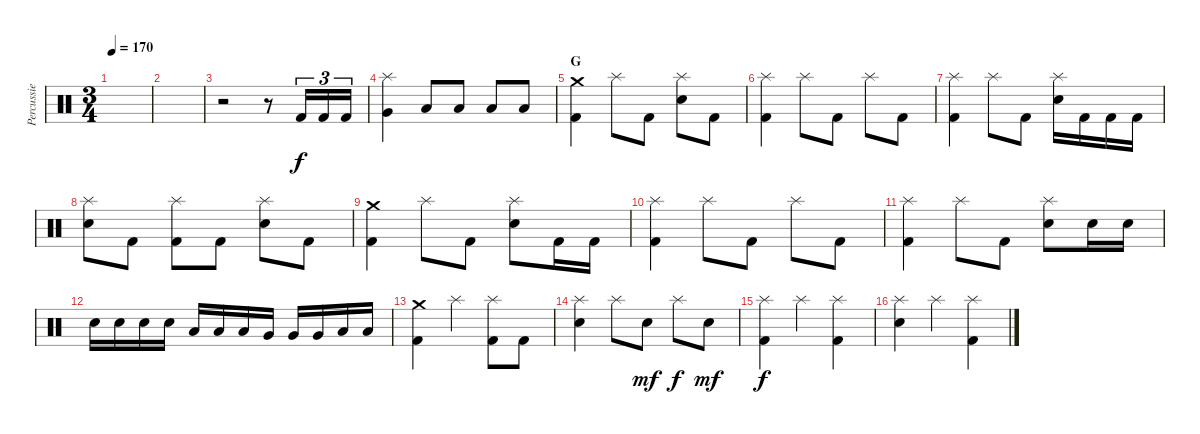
\track ("Percussie" "Percussie") {instrument percussion}
\staff {score}
\articulation defaults
\ts (3 4)
\tempo 170
\clef neutral
\ks c
|
|
r.2 r.8 "Kick (hit) 2".16{tu (3 2)} "Kick (hit) 2".16{tu (3 2)} "Kick (hit) 2".16{tu (3 2)} |
("Splash (hit)" "Very Low Tom (hit)").4 "Low Floor Tom (hit)".8 "Low Floor Tom (hit)".8 "Low Floor Tom (hit)".8 "Low Floor Tom (hit)".8 |
\section ("" "G")
("Crash medium (hit)" "Kick (hit) 2").4 "Splash (hit)".8 "Kick (hit) 2".8 ("Splash (hit)" "Electric Snare (hit)").8 "Kick (hit) 2".8 |
("Splash (hit)" "Kick (hit) 2").4 "Splash (hit)".8 "Kick (hit) 2".8 "Splash (hit)".8 "Kick (hit) 2".8 |
("Splash (hit)" "Kick (hit) 2").4 "Splash (hit)".8 "Kick (hit) 2".8 ("Splash (hit)" "Electric Snare (hit)").16 "Kick (hit) 2".16 "Kick (hit) 2".16 "Kick (hit) 2".16 |
("Splash (hit)" "Electric Snare (hit)").8 "Kick (hit) 2".8 ("Splash (hit)" "Kick (hit) 2").8 "Kick (hit) 2".8 ("Splash (hit)" "Electric Snare (hit)").8 "Kick (hit) 2".8 |
("Crash medium (hit)" "Kick (hit) 2").4 "Splash (hit)".8 "Kick (hit) 2".8 ("Splash (hit)" "Electric Snare (hit)").8 "Kick (hit) 2".16 "Kick (hit) 2".16 |
("Splash (hit)" "Kick (hit) 2").4 "Splash (hit)".8 "Kick (hit) 2".8 "Splash (hit)".8 "Kick (hit) 2".8 |
("Splash (hit)" "Kick (hit) 2").4 "Splash (hit)".8 "Kick (hit) 2".8 ("Splash (hit)" "Electric Snare (hit)").8 "Electric Snare (hit)".16 "Electric Snare (hit)".16 |
"Electric Snare (hit)".16 "Electric Snare (hit)".16 "Electric Snare (hit)".16 "Electric Snare (hit)".16 "Low Tom (hit)".16 "Low Tom (hit)".16 "Low Tom (hit)".16 "Very Low Tom (hit)".16 "Very Low Tom (hit)".16 "Very Low Tom (hit)".16 "Low Floor Tom (hit)".16 "Low Floor Tom (hit)".16 |
("Crash medium (hit)" "Kick (hit) 2").4 "Splash (hit)".4 ("Splash (hit)" "Kick (hit) 2").8 "Kick (hit) 2".8 |
("Splash (hit)" "Electric Snare (hit)").4 "Splash (hit)".8 "Electric Snare (hit)".8{dy mf} "Splash (hit)".8{dy f} "Electric Snare (hit)".8{dy mf} |
("Splash (hit)" "Kick (hit) 2").4{dy f} "Splash (hit)".4 ("Splash (hit)" "Kick (hit) 2").4 |
("Splash (hit)" "Electric Snare (hit)").4 "Splash (hit)".4 ("Splash (hit)" "Kick (hit) 2").4
